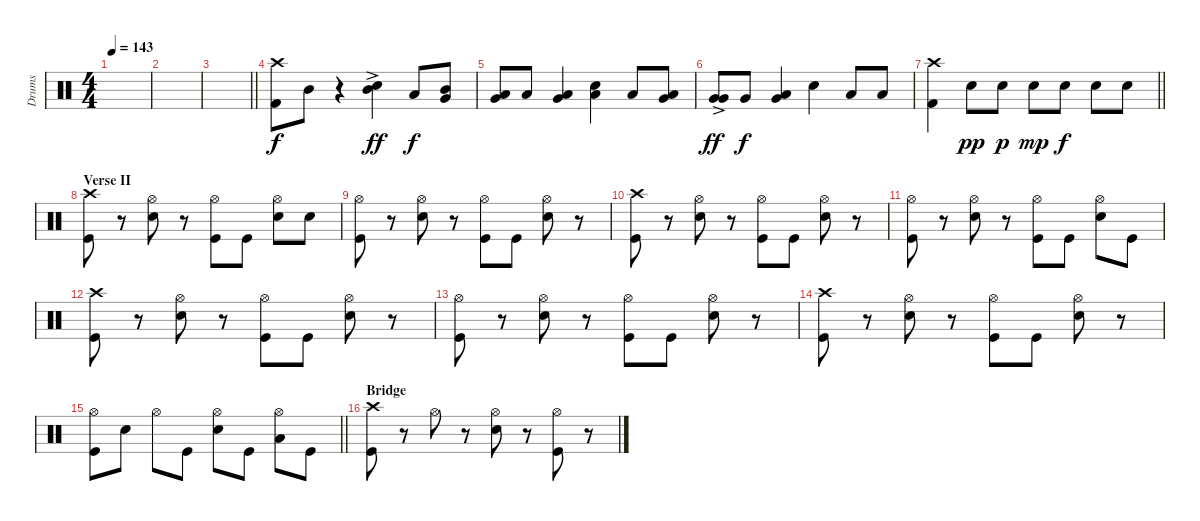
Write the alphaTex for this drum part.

\track ("Drums" "Drums") {instrument percussion}
\staff {score}
\articulation defaults
\ts (4 4)
\tempo 143
\clef neutral
\ks c
|
|
\barLineRight lightlight
|
("Crash high (hit)" "Kick (hit) 2").8 "Mid Tom (hit)".8 r.4 ("Snare (hit) 2"{ac} "Mid Tom (hit)"{ac}).4{dy ff} "Low Tom (hit)".8{dy f} ("Very Low Tom (hit)" "Mid Tom (hit)").8 |
("Low Tom (hit)" "Very Low Tom (hit)").8 "Low Tom (hit)".8 ("Very Low Tom (hit)" "Low Floor Tom (hit)").4 ("Low Tom (hit)" "Snare (hit) 2").4 "Low Tom (hit)".8 ("Low Tom (hit)" "Very Low Tom (hit)").8 |
("Very Low Tom (hit)" "Very Low Tom (hit)"{ac}).8{dy ff} "Very Low Tom (hit)".8{dy f} ("Very Low Tom (hit)" "Low Floor Tom (hit)").4 "Snare (hit) 2".4 "Low Tom (hit)".8 "Low Tom (hit)".8 |
\barLineRight lightlight
("Crash high (hit)" "Kick (hit) 2").4 "Snare (hit) 2".8{dy pp} "Snare (hit) 2".8{dy p} "Snare (hit) 2".8{dy mp} "Snare (hit) 2".8{dy f} "Snare (hit) 2".8 "Snare (hit) 2".8 |
\section ("" "Verse II")
("Crash high (hit)" "Kick (hit)").8 r.8 ("Hi-Hat (open)" "Snare (hit) 2").8 r.8 ("Hi-Hat (open)" "Kick (hit)").8 "Kick (hit)".8 ("Hi-Hat (open)" "Snare (hit) 2").8 "Snare (hit)".8 |
("Hi-Hat (open)" "Kick (hit)").8 r.8 ("Hi-Hat (open)" "Snare (hit) 2").8 r.8 ("Hi-Hat (open)" "Kick (hit)").8 "Kick (hit)".8 ("Hi-Hat (open)" "Snare (hit) 2").8 r.8 |
("Crash high (hit)" "Kick (hit)").8 r.8 ("Hi-Hat (open)" "Snare (hit) 2").8 r.8 ("Hi-Hat (open)" "Kick (hit)").8 "Kick (hit)".8 ("Hi-Hat (open)" "Snare (hit) 2").8 r.8 |
("Hi-Hat (open)" "Kick (hit)").8 r.8 ("Hi-Hat (open)" "Snare (hit) 2").8 r.8 ("Hi-Hat (open)" "Kick (hit)").8 "Kick (hit)".8 ("Hi-Hat (open)" "Snare (hit) 2").8 "Kick (hit)".8 |
("Crash high (hit)" "Kick (hit)").8 r.8 ("Hi-Hat (open)" "Snare (hit) 2").8 r.8 ("Hi-Hat (open)" "Kick (hit)").8 "Kick (hit)".8 ("Hi-Hat (open)" "Snare (hit) 2").8 r.8 |
("Hi-Hat (open)" "Kick (hit)").8 r.8 ("Hi-Hat (open)" "Snare (hit) 2").8 r.8 ("Hi-Hat (open)" "Kick (hit)").8 "Kick (hit)".8 ("Hi-Hat (open)" "Snare (hit) 2").8 r.8 |
("Crash high (hit)" "Kick (hit)").8 r.8 ("Hi-Hat (open)" "Snare (hit) 2").8 r.8 ("Hi-Hat (open)" "Kick (hit)").8 "Kick (hit)".8 ("Hi-Hat (open)" "Snare (hit) 2").8 r.8 |
\barLineRight lightlight
("Hi-Hat (open)" "Kick (hit)").8 "Snare (hit) 2".8 "Hi-Hat (open)".8 "Kick (hit)".8 ("Hi-Hat (open)" "Snare (hit) 2").8 "Kick (hit)".8 ("Hi-Hat (open)" "Low Tom (hit)").8 "Kick (hit)".8 |
\section ("" "Bridge")
("Crash high (hit)" "Kick (hit)").8 r.8 "Hi-Hat (open)".8 r.8 ("Hi-Hat (open)" "Snare (hit) 2").8 r.8 ("Hi-Hat (open)" "Kick (hit)").8 r.8
